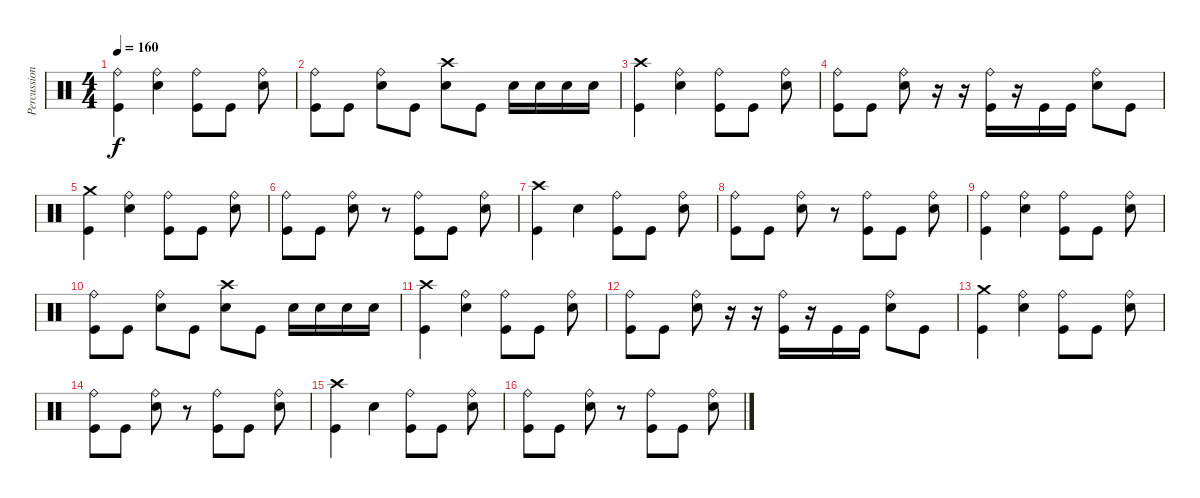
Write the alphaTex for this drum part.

\track ("Percussion" "Percussion") {instrument percussion}
\staff {score}
\articulation defaults
\ts (4 4)
\tempo 160
\clef neutral
\ks c
("Ride (bell)" "Kick (hit)").4{dy f} ("Ride (bell)" "Electric Snare (hit)").4 ("Ride (bell)" "Kick (hit)").8 "Kick (hit)".8 ("Ride (bell)" "Electric Snare (hit)").8 |
("Ride (bell)" "Kick (hit)").8 "Kick (hit)".8 ("Ride (bell)" "Electric Snare (hit)").8 "Kick (hit)".8 ("Crash high (hit)" "Electric Snare (hit)").8 "Kick (hit)".8 "Electric Snare (hit)".16 "Electric Snare (hit)".16 "Electric Snare (hit)".16 "Electric Snare (hit)".16 |
("Kick (hit)" "Crash high (hit)").4 ("Electric Snare (hit)" "Ride (bell)").4 ("Kick (hit)" "Ride (bell)").8 "Kick (hit)".8 ("Electric Snare (hit)" "Ride (bell)").8 |
("Ride (bell)" "Kick (hit)").8 "Kick (hit)".8 ("Ride (bell)" "Electric Snare (hit)").8 r.16 r.16 ("Ride (bell)" "Kick (hit)").16 r.16 "Kick (hit)".16 "Kick (hit)".16 ("Ride (bell)" "Electric Snare (hit)").8 "Kick (hit)".8 |
("Crash medium (hit)" "Kick (hit)").4 ("Ride (bell)" "Electric Snare (hit)").4 ("Ride (bell)" "Kick (hit)").8 "Kick (hit)".8 ("Ride (bell)" "Electric Snare (hit)").8 |
("Ride (bell)" "Kick (hit)").8 "Kick (hit)".8 ("Ride (bell)" "Electric Snare (hit)").8 r.8 ("Ride (bell)" "Kick (hit)").8 "Kick (hit)".8 ("Ride (bell)" "Electric Snare (hit)").8 |
("Crash high (hit)" "Kick (hit)").4 "Electric Snare (hit)".4 ("Ride (bell)" "Kick (hit)").8 "Kick (hit)".8 ("Ride (bell)" "Electric Snare (hit)").8 |
("Ride (bell)" "Kick (hit)").8 "Kick (hit)".8 ("Ride (bell)" "Electric Snare (hit)").8 r.8 ("Ride (bell)" "Kick (hit)").8 "Kick (hit)".8 ("Ride (bell)" "Electric Snare (hit)").8 |
("Ride (bell)" "Kick (hit)").4 ("Ride (bell)" "Electric Snare (hit)").4 ("Ride (bell)" "Kick (hit)").8 "Kick (hit)".8 ("Ride (bell)" "Electric Snare (hit)").8 |
("Ride (bell)" "Kick (hit)").8 "Kick (hit)".8 ("Ride (bell)" "Electric Snare (hit)").8 "Kick (hit)".8 ("Crash high (hit)" "Electric Snare (hit)").8 "Kick (hit)".8 "Electric Snare (hit)".16 "Electric Snare (hit)".16 "Electric Snare (hit)".16 "Electric Snare (hit)".16 |
("Kick (hit)" "Crash high (hit)").4 ("Electric Snare (hit)" "Ride (bell)").4 ("Kick (hit)" "Ride (bell)").8 "Kick (hit)".8 ("Electric Snare (hit)" "Ride (bell)").8 |
("Ride (bell)" "Kick (hit)").8 "Kick (hit)".8 ("Ride (bell)" "Electric Snare (hit)").8 r.16 r.16 ("Ride (bell)" "Kick (hit)").16 r.16 "Kick (hit)".16 "Kick (hit)".16 ("Ride (bell)" "Electric Snare (hit)").8 "Kick (hit)".8 |
("Crash medium (hit)" "Kick (hit)").4 ("Ride (bell)" "Electric Snare (hit)").4 ("Ride (bell)" "Kick (hit)").8 "Kick (hit)".8 ("Ride (bell)" "Electric Snare (hit)").8 |
("Ride (bell)" "Kick (hit)").8 "Kick (hit)".8 ("Ride (bell)" "Electric Snare (hit)").8 r.8 ("Ride (bell)" "Kick (hit)").8 "Kick (hit)".8 ("Ride (bell)" "Electric Snare (hit)").8 |
("Crash high (hit)" "Kick (hit)").4 "Electric Snare (hit)".4 ("Ride (bell)" "Kick (hit)").8 "Kick (hit)".8 ("Ride (bell)" "Electric Snare (hit)").8 |
("Ride (bell)" "Kick (hit)").8 "Kick (hit)".8 ("Ride (bell)" "Electric Snare (hit)").8 r.8 ("Ride (bell)" "Kick (hit)").8 "Kick (hit)".8 ("Ride (bell)" "Electric Snare (hit)").8
